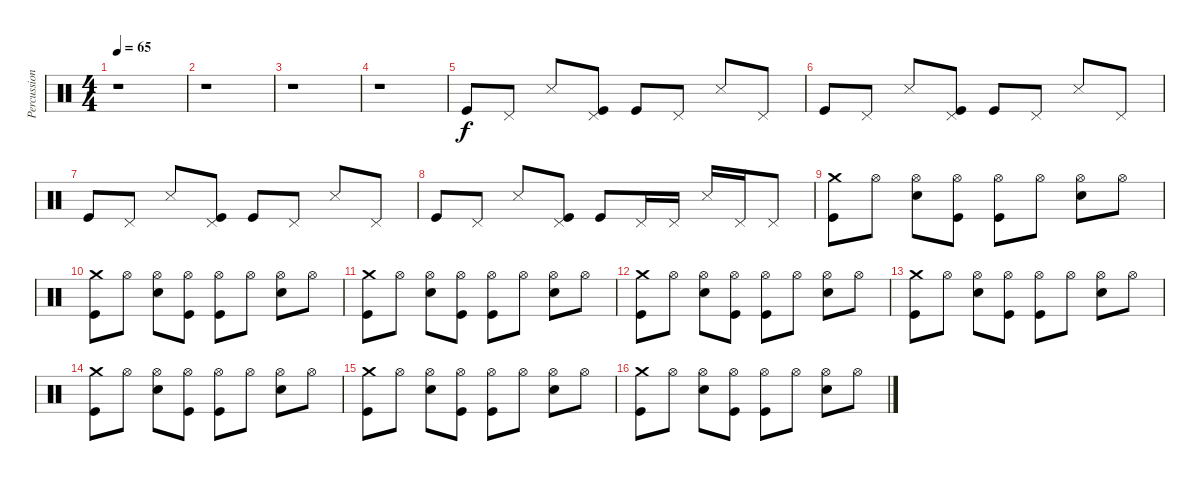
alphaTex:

\track ("Percussions" "Percussion") {instrument percussion}
\staff {score}
\articulation defaults
\ts (4 4)
\tempo 65
\clef neutral
\ks c
r.1{dy f} |
r.1 |
r.1 |
r.1 |
"Kick (hit)".8 "Pedal Hi-Hat (hit)".8 "Snare (side stick) 3".8 ("Pedal Hi-Hat (hit)" "Kick (hit)").8 "Kick (hit)".8 "Pedal Hi-Hat (hit)".8 "Snare (side stick) 3".8 "Pedal Hi-Hat (hit)".8 |
"Kick (hit)".8 "Pedal Hi-Hat (hit)".8 "Snare (side stick) 3".8 ("Pedal Hi-Hat (hit)" "Kick (hit)").8 "Kick (hit)".8 "Pedal Hi-Hat (hit)".8 "Snare (side stick) 3".8 "Pedal Hi-Hat (hit)".8 |
"Kick (hit)".8 "Pedal Hi-Hat (hit)".8 "Snare (side stick) 3".8 ("Pedal Hi-Hat (hit)" "Kick (hit)").8 "Kick (hit)".8 "Pedal Hi-Hat (hit)".8 "Snare (side stick) 3".8 "Pedal Hi-Hat (hit)".8 |
"Kick (hit)".8 "Pedal Hi-Hat (hit)".8 "Snare (side stick) 3".8 ("Pedal Hi-Hat (hit)" "Kick (hit)").8 "Kick (hit)".8 "Pedal Hi-Hat (hit)".16 "Pedal Hi-Hat (hit)".16 "Snare (side stick) 3".16 "Pedal Hi-Hat (hit)".16 "Pedal Hi-Hat (hit)".8 |
("Crash medium (hit)" "Kick (hit)").8 "Hi-Hat (open)".8 ("Hi-Hat (open)" "Electric Snare (hit)").8 ("Hi-Hat (open)" "Kick (hit)").8 ("Hi-Hat (open)" "Kick (hit)").8 "Hi-Hat (open)".8 ("Hi-Hat (open)" "Electric Snare (hit)").8 "Hi-Hat (open)".8 |
("Crash medium (hit)" "Kick (hit)").8 "Hi-Hat (open)".8 ("Hi-Hat (open)" "Electric Snare (hit)").8 ("Hi-Hat (open)" "Kick (hit)").8 ("Hi-Hat (open)" "Kick (hit)").8 "Hi-Hat (open)".8 ("Hi-Hat (open)" "Electric Snare (hit)").8 "Hi-Hat (open)".8 |
("Crash medium (hit)" "Kick (hit)").8 "Hi-Hat (open)".8 ("Hi-Hat (open)" "Electric Snare (hit)").8 ("Hi-Hat (open)" "Kick (hit)").8 ("Hi-Hat (open)" "Kick (hit)").8 "Hi-Hat (open)".8 ("Hi-Hat (open)" "Electric Snare (hit)").8 "Hi-Hat (open)".8 |
("Crash medium (hit)" "Kick (hit)").8 "Hi-Hat (open)".8 ("Hi-Hat (open)" "Electric Snare (hit)").8 ("Hi-Hat (open)" "Kick (hit)").8 ("Hi-Hat (open)" "Kick (hit)").8 "Hi-Hat (open)".8 ("Hi-Hat (open)" "Electric Snare (hit)").8 "Hi-Hat (open)".8 |
("Crash medium (hit)" "Kick (hit)").8 "Hi-Hat (open)".8 ("Hi-Hat (open)" "Electric Snare (hit)").8 ("Hi-Hat (open)" "Kick (hit)").8 ("Hi-Hat (open)" "Kick (hit)").8 "Hi-Hat (open)".8 ("Hi-Hat (open)" "Electric Snare (hit)").8 "Hi-Hat (open)".8 |
("Crash medium (hit)" "Kick (hit)").8 "Hi-Hat (open)".8 ("Hi-Hat (open)" "Electric Snare (hit)").8 ("Hi-Hat (open)" "Kick (hit)").8 ("Hi-Hat (open)" "Kick (hit)").8 "Hi-Hat (open)".8 ("Hi-Hat (open)" "Electric Snare (hit)").8 "Hi-Hat (open)".8 |
("Crash medium (hit)" "Kick (hit)").8 "Hi-Hat (open)".8 ("Hi-Hat (open)" "Electric Snare (hit)").8 ("Hi-Hat (open)" "Kick (hit)").8 ("Hi-Hat (open)" "Kick (hit)").8 "Hi-Hat (open)".8 ("Hi-Hat (open)" "Electric Snare (hit)").8 "Hi-Hat (open)".8 |
("Crash medium (hit)" "Kick (hit)").8 "Hi-Hat (open)".8 ("Hi-Hat (open)" "Electric Snare (hit)").8 ("Hi-Hat (open)" "Kick (hit)").8 ("Hi-Hat (open)" "Kick (hit)").8 "Hi-Hat (open)".8 ("Hi-Hat (open)" "Electric Snare (hit)").8 "Hi-Hat (open)".8
